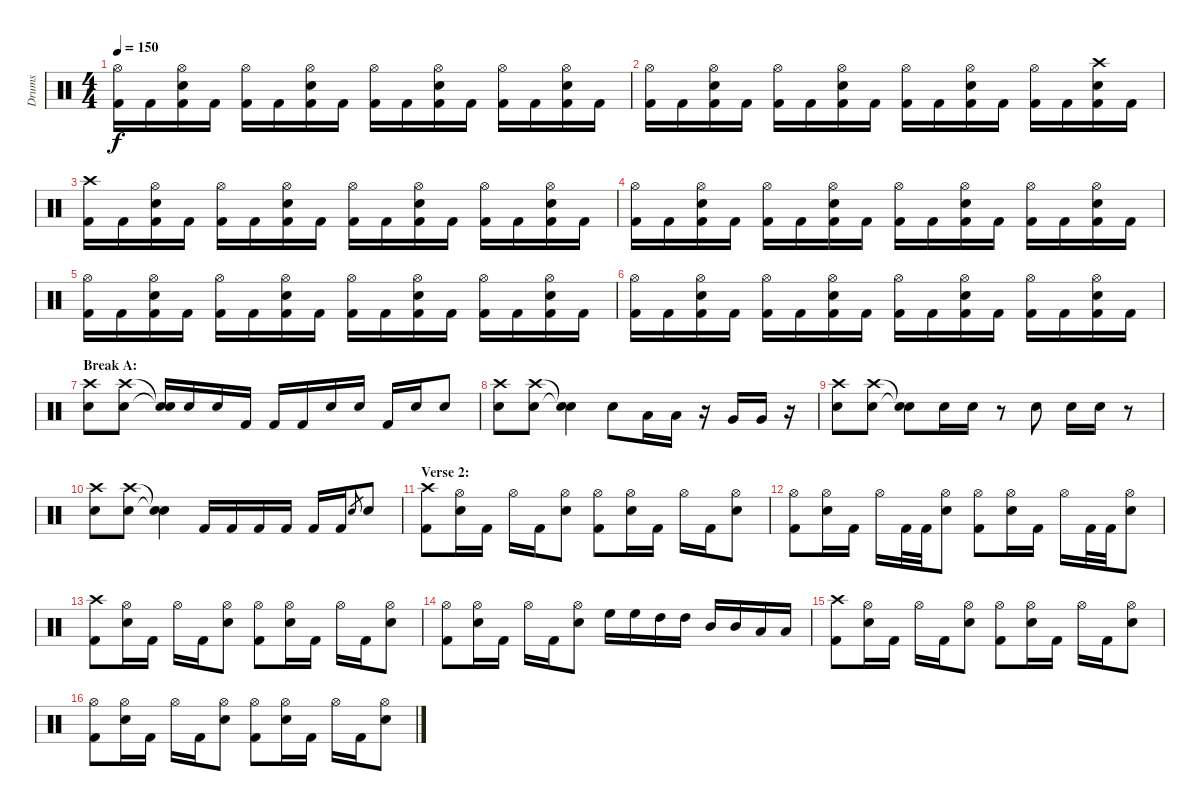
\track ("Drums" "Drums") {instrument percussion}
\staff {score}
\articulation defaults
\ts (4 4)
\tempo 150
\clef neutral
\ks c
("Hi-Hat (open)" "Kick (hit) 2").16{dy f} "Kick (hit) 2".16 ("Hi-Hat (open)" "Snare (hit) 2" "Kick (hit) 2").16 "Kick (hit) 2".16 ("Hi-Hat (open)" "Kick (hit) 2").16 "Kick (hit) 2".16 ("Hi-Hat (open)" "Snare (hit) 2" "Kick (hit) 2").16 "Kick (hit) 2".16 ("Hi-Hat (open)" "Kick (hit) 2").16 "Kick (hit) 2".16 ("Hi-Hat (open)" "Snare (hit) 2" "Kick (hit) 2").16 "Kick (hit) 2".16 ("Hi-Hat (open)" "Kick (hit) 2").16 "Kick (hit) 2".16 ("Hi-Hat (open)" "Snare (hit) 2" "Kick (hit) 2").16 "Kick (hit) 2".16 |
("Hi-Hat (open)" "Kick (hit) 2").16 "Kick (hit) 2".16 ("Hi-Hat (open)" "Snare (hit) 2" "Kick (hit) 2").16 "Kick (hit) 2".16 ("Hi-Hat (open)" "Kick (hit) 2").16 "Kick (hit) 2".16 ("Hi-Hat (open)" "Snare (hit) 2" "Kick (hit) 2").16 "Kick (hit) 2".16 ("Hi-Hat (open)" "Kick (hit) 2").16 "Kick (hit) 2".16 ("Hi-Hat (open)" "Snare (hit) 2" "Kick (hit) 2").16 "Kick (hit) 2".16 ("Hi-Hat (open)" "Kick (hit) 2").16 "Kick (hit) 2".16 ("Crash high (hit)" "Snare (hit) 2" "Kick (hit) 2").16 "Kick (hit) 2".16 |
("Crash high (hit)" "Kick (hit) 2").16 "Kick (hit) 2".16 ("Hi-Hat (open)" "Snare (hit) 2" "Kick (hit) 2").16 "Kick (hit) 2".16 ("Hi-Hat (open)" "Kick (hit) 2").16 "Kick (hit) 2".16 ("Hi-Hat (open)" "Snare (hit) 2" "Kick (hit) 2").16 "Kick (hit) 2".16 ("Hi-Hat (open)" "Kick (hit) 2").16 "Kick (hit) 2".16 ("Hi-Hat (open)" "Snare (hit) 2" "Kick (hit) 2").16 "Kick (hit) 2".16 ("Hi-Hat (open)" "Kick (hit) 2").16 "Kick (hit) 2".16 ("Hi-Hat (open)" "Snare (hit) 2" "Kick (hit) 2").16 "Kick (hit) 2".16 |
("Hi-Hat (open)" "Kick (hit) 2").16 "Kick (hit) 2".16 ("Hi-Hat (open)" "Snare (hit) 2" "Kick (hit) 2").16 "Kick (hit) 2".16 ("Hi-Hat (open)" "Kick (hit) 2").16 "Kick (hit) 2".16 ("Hi-Hat (open)" "Snare (hit) 2" "Kick (hit) 2").16 "Kick (hit) 2".16 ("Hi-Hat (open)" "Kick (hit) 2").16 "Kick (hit) 2".16 ("Hi-Hat (open)" "Snare (hit) 2" "Kick (hit) 2").16 "Kick (hit) 2".16 ("Hi-Hat (open)" "Kick (hit) 2").16 "Kick (hit) 2".16 ("Hi-Hat (open)" "Snare (hit) 2" "Kick (hit) 2").16 "Kick (hit) 2".16 |
("Hi-Hat (open)" "Kick (hit) 2").16 "Kick (hit) 2".16 ("Hi-Hat (open)" "Snare (hit) 2" "Kick (hit) 2").16 "Kick (hit) 2".16 ("Hi-Hat (open)" "Kick (hit) 2").16 "Kick (hit) 2".16 ("Hi-Hat (open)" "Snare (hit) 2" "Kick (hit) 2").16 "Kick (hit) 2".16 ("Hi-Hat (open)" "Kick (hit) 2").16 "Kick (hit) 2".16 ("Hi-Hat (open)" "Snare (hit) 2" "Kick (hit) 2").16 "Kick (hit) 2".16 ("Hi-Hat (open)" "Kick (hit) 2").16 "Kick (hit) 2".16 ("Hi-Hat (open)" "Snare (hit) 2" "Kick (hit) 2").16 "Kick (hit) 2".16 |
("Hi-Hat (open)" "Kick (hit) 2").16 "Kick (hit) 2".16 ("Hi-Hat (open)" "Snare (hit) 2" "Kick (hit) 2").16 "Kick (hit) 2".16 ("Hi-Hat (open)" "Kick (hit) 2").16 "Kick (hit) 2".16 ("Hi-Hat (open)" "Snare (hit) 2" "Kick (hit) 2").16 "Kick (hit) 2".16 ("Hi-Hat (open)" "Kick (hit) 2").16 "Kick (hit) 2".16 ("Hi-Hat (open)" "Snare (hit) 2" "Kick (hit) 2").16 "Kick (hit) 2".16 ("Hi-Hat (open)" "Kick (hit) 2").16 "Kick (hit) 2".16 ("Hi-Hat (open)" "Snare (hit) 2" "Kick (hit) 2").16 "Kick (hit) 2".16 |
\section ("" "Break A:")
("Crash high (hit)" "Snare (hit) 2").8 ("Crash high (hit)" "Snare (hit) 2").8 ("Snare (hit)"{t} "Snare (hit)"{t}).16 "Snare (hit) 2".16 "Snare (hit) 2".16 "Kick (hit) 2".16 "Kick (hit) 2".16 "Kick (hit) 2".16 "Snare (hit) 2".16 "Snare (hit) 2".16 "Kick (hit) 2".16 "Snare (hit) 2".16 "Snare (hit) 2".8 |
("Crash high (hit)" "Snare (hit) 2").8 ("Crash high (hit)" "Snare (hit) 2").8 ("Snare (hit)"{t} "Snare (hit)"{t}).4 "Snare (hit) 2".8 "Low Tom (hit)".16 "Low Tom (hit)".16 r.16 "Very Low Tom (hit)".16 "Very Low Tom (hit)".16 r.16 |
("Crash high (hit)" "Snare (hit) 2").8 ("Crash high (hit)" "Snare (hit) 2").8 ("Snare (hit)"{t} "Snare (hit)"{t}).8 "Snare (hit) 2".16 "Snare (hit) 2".16 r.8 "Snare (hit) 2".8 "Snare (hit) 2".16 "Snare (hit) 2".16 r.8 |
("Crash high (hit)" "Snare (hit) 2").8 ("Crash high (hit)" "Snare (hit) 2").8 ("Snare (hit)"{t} "Snare (hit)"{t}).4 "Kick (hit) 2".16 "Kick (hit) 2".16 "Kick (hit) 2".16 "Kick (hit) 2".16 "Kick (hit) 2".16 "Kick (hit) 2".16 "Snare (hit) 2".8{gr} "Snare (hit) 2".8 |
\section ("" "Verse 2:")
("Crash high (hit)" "Kick (hit) 2").8 ("Hi-Hat (open)" "Snare (hit) 2").16 "Kick (hit) 2".16 "Hi-Hat (open)".16 "Kick (hit) 2".16 ("Hi-Hat (open)" "Snare (hit) 2").8 ("Hi-Hat (open)" "Kick (hit) 2").8 ("Hi-Hat (open)" "Snare (hit) 2").16 "Kick (hit) 2".16 "Hi-Hat (open)".16 "Kick (hit) 2".16 ("Hi-Hat (open)" "Snare (hit) 2").8 |
("Hi-Hat (open)" "Kick (hit) 2").8 ("Hi-Hat (open)" "Snare (hit) 2").16 "Kick (hit) 2".16 "Hi-Hat (open)".16 "Kick (hit) 2".32 "Kick (hit) 2".32 ("Hi-Hat (open)" "Snare (hit) 2").8 ("Hi-Hat (open)" "Kick (hit) 2").8 ("Hi-Hat (open)" "Snare (hit) 2").16 "Kick (hit) 2".16 "Hi-Hat (open)".16 "Kick (hit) 2".32 "Kick (hit) 2".32 ("Hi-Hat (open)" "Snare (hit) 2").8 |
("Crash high (hit)" "Kick (hit) 2").8 ("Hi-Hat (open)" "Snare (hit) 2").16 "Kick (hit) 2".16 "Hi-Hat (open)".16 "Kick (hit) 2".16 ("Hi-Hat (open)" "Snare (hit) 2").8 ("Hi-Hat (open)" "Kick (hit) 2").8 ("Hi-Hat (open)" "Snare (hit) 2").16 "Kick (hit) 2".16 "Hi-Hat (open)".16 "Kick (hit) 2".16 ("Hi-Hat (open)" "Snare (hit) 2").8 |
("Hi-Hat (open)" "Kick (hit) 2").8 ("Hi-Hat (open)" "Snare (hit) 2").16 "Kick (hit) 2".16 "Hi-Hat (open)".16 "Kick (hit) 2".16 ("Hi-Hat (open)" "Snare (hit) 2").8 "High Floor Tom (hit)".16 "High Floor Tom (hit)".16 "High Tom (hit)".16 "High Tom (hit)".16 "Mid Tom (hit)".16 "Mid Tom (hit)".16 "Low Tom (hit)".16 "Low Tom (hit)".16 |
("Crash high (hit)" "Kick (hit) 2").8 ("Hi-Hat (open)" "Snare (hit) 2").16 "Kick (hit) 2".16 "Hi-Hat (open)".16 "Kick (hit) 2".16 ("Hi-Hat (open)" "Snare (hit) 2").8 ("Hi-Hat (open)" "Kick (hit) 2").8 ("Hi-Hat (open)" "Snare (hit) 2").16 "Kick (hit) 2".16 "Hi-Hat (open)".16 "Kick (hit) 2".16 ("Hi-Hat (open)" "Snare (hit) 2").8 |
("Hi-Hat (open)" "Kick (hit) 2").8 ("Hi-Hat (open)" "Snare (hit) 2").16 "Kick (hit) 2".16 "Hi-Hat (open)".16 "Kick (hit) 2".16 ("Hi-Hat (open)" "Snare (hit) 2").8 ("Hi-Hat (open)" "Kick (hit) 2").8 ("Hi-Hat (open)" "Snare (hit) 2").16 "Kick (hit) 2".16 "Hi-Hat (open)".16 "Kick (hit) 2".16 ("Hi-Hat (open)" "Snare (hit) 2").8
